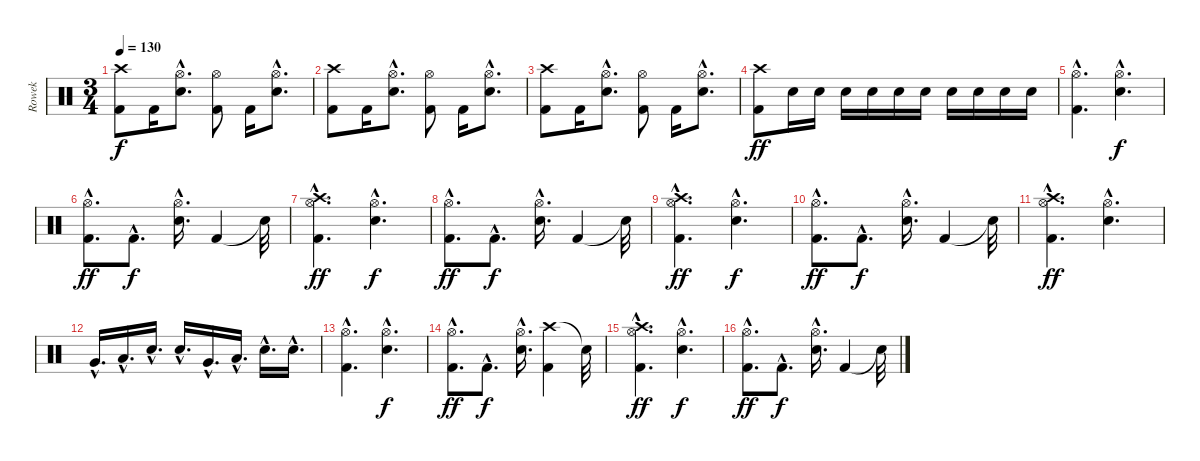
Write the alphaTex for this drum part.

\track ("Rowek" "Rowek") {instrument percussion}
\staff {score}
\articulation defaults
\ts (3 4)
\tempo 130
\clef neutral
\ks c
("Crash high (hit)" "Kick (hit) 2").8{dy f} "Kick (hit) 2".16 ("Hi-Hat (open)"{hac} "Snare (hit) 2"{hac}).8{d} ("Hi-Hat (open)" "Kick (hit) 2").8 "Kick (hit) 2".16 ("Hi-Hat (open)"{hac} "Snare (hit) 2"{hac}).8{d} |
("Crash high (hit)" "Kick (hit) 2").8 "Kick (hit) 2".16 ("Hi-Hat (open)"{hac} "Snare (hit) 2"{hac}).8{d} ("Hi-Hat (open)" "Kick (hit) 2").8 "Kick (hit) 2".16 ("Hi-Hat (open)"{hac} "Snare (hit) 2"{hac}).8{d} |
("Crash high (hit)" "Kick (hit) 2").8 "Kick (hit) 2".16 ("Hi-Hat (open)"{hac} "Snare (hit) 2"{hac}).8{d} ("Hi-Hat (open)" "Kick (hit) 2").8 "Kick (hit) 2".16 ("Hi-Hat (open)"{hac} "Snare (hit) 2"{hac}).8{d} |
("Kick (hit) 2" "Crash high (hit)").8{dy ff} "Electric Snare (hit)".16 "Electric Snare (hit)".16 "Electric Snare (hit)".16 "Electric Snare (hit)".16 "Electric Snare (hit)".16 "Electric Snare (hit)".16 "Electric Snare (hit)".16 "Electric Snare (hit)".16 "Electric Snare (hit)".16 "Electric Snare (hit)".16 |
("Hi-Hat (open)"{hac} "Kick (hit) 2"{hac}).4{d} ("Hi-Hat (open)"{hac} "Snare (hit) 2"{hac}).4{d dy f} |
("Hi-Hat (open)"{hac} "Kick (hit) 2"{hac}).8{d dy ff} "Kick (hit) 2"{hac}.8{d dy f} ("Hi-Hat (open)"{hac} "Snare (hit) 2"{hac}).16{d} "Kick (hit) 2".4 "Snare (hit)"{t}.32 |
("Hi-Hat (open)"{hac} "Crash high (hit)"{hac} "Kick (hit) 2"{hac}).4{d dy ff} ("Hi-Hat (open)"{hac} "Snare (hit) 2"{hac}).4{d dy f} |
("Hi-Hat (open)"{hac} "Kick (hit) 2"{hac}).8{d dy ff} "Kick (hit) 2"{hac}.8{d dy f} ("Hi-Hat (open)"{hac} "Snare (hit) 2"{hac}).16{d} "Kick (hit) 2".4 "Snare (hit)"{t}.32 |
("Hi-Hat (open)"{hac} "Crash high (hit)"{hac} "Kick (hit) 2"{hac}).4{d dy ff} ("Hi-Hat (open)"{hac} "Snare (hit) 2"{hac}).4{d dy f} |
("Hi-Hat (open)"{hac} "Kick (hit) 2"{hac}).8{d dy ff} "Kick (hit) 2"{hac}.8{d dy f} ("Hi-Hat (open)"{hac} "Snare (hit) 2"{hac}).16{d} "Kick (hit) 2".4 "Snare (hit)"{t}.32 |
("Hi-Hat (open)"{hac} "Crash high (hit)"{hac} "Kick (hit) 2"{hac}).4{d dy ff} ("Hi-Hat (open)"{hac} "Snare (hit) 2"{hac}).4{d} |
"Very Low Tom (hit)"{hac}.16{d} "Low Floor Tom (hit)"{hac}.16{d} "Electric Snare (hit)"{hac}.16{d} "Snare (hit) 2"{hac}.16{d} "Very Low Tom (hit)"{hac}.16{d} "Low Floor Tom (hit)"{hac}.16{d} "Electric Snare (hit)"{hac}.16{d} "Snare (hit) 2"{hac}.16{d} |
("Hi-Hat (open)"{hac} "Kick (hit) 2"{hac}).4{d} ("Hi-Hat (open)"{hac} "Snare (hit) 2"{hac}).4{d dy f} |
("Hi-Hat (open)"{hac} "Kick (hit) 2"{hac}).8{d dy ff} "Kick (hit) 2"{hac}.8{d dy f} ("Hi-Hat (open)"{hac} "Snare (hit) 2"{hac}).16{d} ("Crash high (hit)" "Kick (hit) 2").4 "Snare (hit)"{t}.32 |
("Hi-Hat (open)"{hac} "Crash high (hit)"{hac} "Kick (hit) 2"{hac}).4{d dy ff} ("Hi-Hat (open)"{hac} "Snare (hit) 2"{hac}).4{d dy f} |
("Hi-Hat (open)"{hac} "Kick (hit) 2"{hac}).8{d dy ff} "Kick (hit) 2"{hac}.8{d dy f} ("Hi-Hat (open)"{hac} "Snare (hit) 2"{hac}).16{d} "Kick (hit) 2".4 "Snare (hit)"{t}.32
